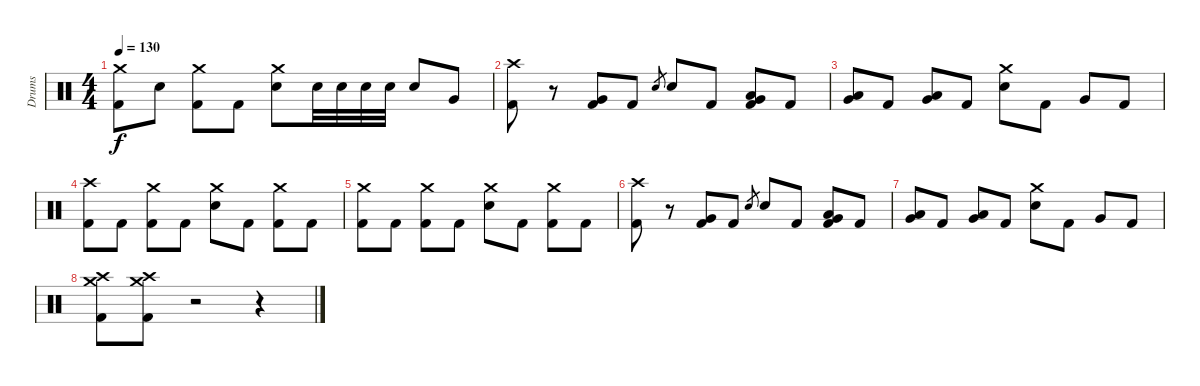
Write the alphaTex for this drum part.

\track ("Drums" "Drums") {instrument percussion}
\staff {score}
\articulation defaults
\ts (4 4)
\tempo 130
\clef neutral
\ks c
("Crash medium (hit)" "Kick (hit) 2").8{dy f} "Electric Snare (hit)".8 ("Crash medium (hit)" "Kick (hit) 2").8 "Kick (hit) 2".8 ("Crash medium (hit)" "Electric Snare (hit)").8 "Electric Snare (hit)".32 "Electric Snare (hit)".32 "Electric Snare (hit)".32 "Electric Snare (hit)".32 "Electric Snare (hit)".8 "Very Low Tom (hit)".8 |
("Crash high (hit)" "Kick (hit) 2").8 r.8 ("Very Low Tom (hit)" "Kick (hit) 2").8 "Kick (hit) 2".8 "Electric Snare (hit)".8{gr} "Electric Snare (hit)".8 "Kick (hit) 2".8 ("Very Low Tom (hit)" "Low Tom (hit)" "Kick (hit) 2").8 "Kick (hit) 2".8 |
("Very Low Tom (hit)" "Low Tom (hit)").8 "Kick (hit) 2".8 ("Very Low Tom (hit)" "Low Tom (hit)").8 "Kick (hit) 2".8 ("Crash medium (hit)" "Electric Snare (hit)").8 "Kick (hit) 2".8 "Very Low Tom (hit)".8 "Kick (hit) 2".8 |
("Crash high (hit)" "Kick (hit) 2").8 "Kick (hit) 2".8 ("Crash medium (hit)" "Kick (hit) 2").8 "Kick (hit) 2".8 ("Crash medium (hit)" "Electric Snare (hit)").8 "Kick (hit) 2".8 ("Crash medium (hit)" "Kick (hit) 2").8 "Kick (hit) 2".8 |
("Crash medium (hit)" "Kick (hit) 2").8 "Kick (hit) 2".8 ("Crash medium (hit)" "Kick (hit) 2").8 "Kick (hit) 2".8 ("Crash medium (hit)" "Electric Snare (hit)").8 "Kick (hit) 2".8 ("Crash medium (hit)" "Kick (hit) 2").8 "Kick (hit) 2".8 |
("Crash high (hit)" "Kick (hit) 2").8 r.8 ("Very Low Tom (hit)" "Kick (hit) 2").8 "Kick (hit) 2".8 "Electric Snare (hit)".8{gr} "Electric Snare (hit)".8 "Kick (hit) 2".8 ("Very Low Tom (hit)" "Low Tom (hit)" "Kick (hit) 2").8 "Kick (hit) 2".8 |
("Very Low Tom (hit)" "Low Tom (hit)").8 "Kick (hit) 2".8 ("Very Low Tom (hit)" "Low Tom (hit)").8 "Kick (hit) 2".8 ("Crash medium (hit)" "Electric Snare (hit)").8 "Kick (hit) 2".8 "Very Low Tom (hit)".8 "Kick (hit) 2".8 |
("Crash high (hit)" "Crash medium (hit)" "Kick (hit) 2").8 ("Crash high (hit)" "Crash medium (hit)" "Kick (hit) 2").8 r.2 r.4
